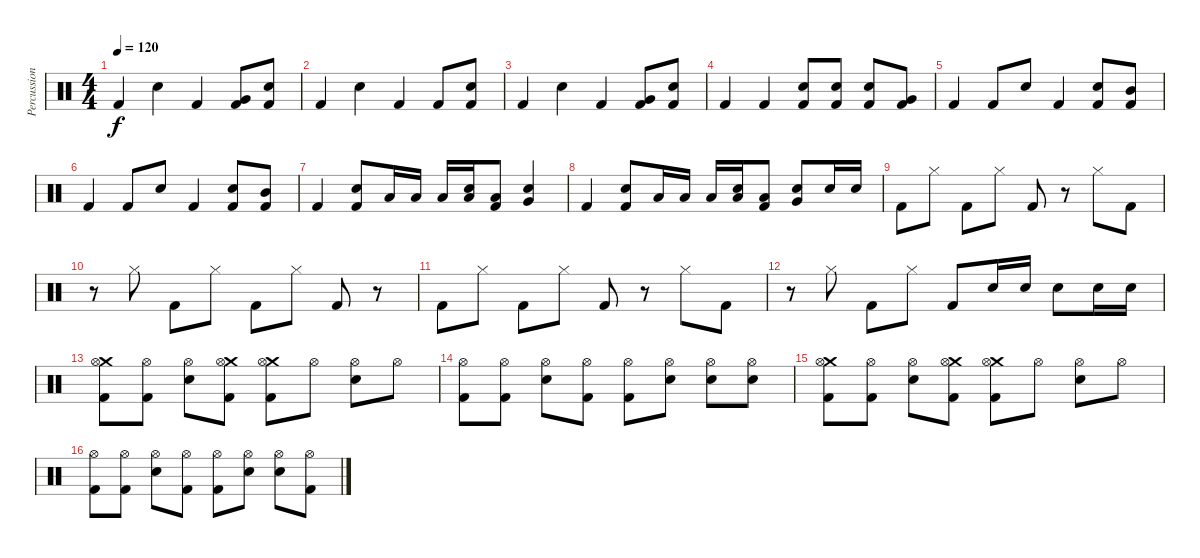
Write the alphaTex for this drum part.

\track ("Percussion" "Percussion") {instrument percussion}
\staff {score}
\articulation defaults
\ts (4 4)
\tempo 120
\clef neutral
\ks c "Kick (hit) 2".4{dy f} "Electric Snare (hit)".4 "Kick (hit) 2".4
("Very Low Tom (hit)" "Kick (hit) 2").8 ("Electric Snare (hit)" "Kick (hit) 2").8 |
"Kick (hit) 2".4 "Electric Snare (hit)".4 "Kick (hit) 2".4 "Kick (hit) 2".8 ("Electric Snare (hit)" "Kick (hit) 2").8 |
"Kick (hit) 2".4 "Electric Snare (hit)".4 "Kick (hit) 2".4 ("Very Low Tom (hit)" "Kick (hit) 2").8 ("Electric Snare (hit)" "Kick (hit) 2").8 |
"Kick (hit) 2".4 "Kick (hit) 2".4 ("Electric Snare (hit)" "Kick (hit) 2").8 ("Electric Snare (hit)" "Kick (hit) 2").8 ("Electric Snare (hit)" "Kick (hit) 2").8 ("Very Low Tom (hit)" "Kick (hit) 2").8 |
"Kick (hit) 2".4 "Kick (hit) 2".8 "Electric Snare (hit)".8 "Kick (hit) 2".4 ("Electric Snare (hit)" "Kick (hit) 2").8 ("Mid Tom (hit)" "Kick (hit) 2").8 |
"Kick (hit) 2".4 "Kick (hit) 2".8 "Electric Snare (hit)".8 "Kick (hit) 2".4 ("Electric Snare (hit)" "Kick (hit) 2").8 ("Mid Tom (hit)" "Kick (hit) 2").8 |
"Kick (hit) 2".4 ("Electric Snare (hit)" "Kick (hit) 2").8 "Low Tom (hit)".16 "Low Tom (hit)".16 "Low Tom (hit)".16 ("Low Tom (hit)" "Electric Snare (hit)").16 ("Low Tom (hit)" "Kick (hit) 2").8 ("Very Low Tom (hit)" "Electric Snare (hit)").4 |
"Kick (hit) 2".4 ("Electric Snare (hit)" "Kick (hit) 2").8 "Low Tom (hit)".16 "Low Tom (hit)".16 "Low Tom (hit)".16 ("Low Tom (hit)" "Electric Snare (hit)").16 ("Low Tom (hit)" "Kick (hit) 2").8 ("Very Low Tom (hit)" "Electric Snare (hit)").8 "Electric Snare (hit)".16 "Electric Snare (hit)".16 |
"Kick (hit) 2".8 "Hi-Hat (closed)".8 "Kick (hit) 2".8 "Hi-Hat (closed)".8 "Kick (hit) 2".8 r.8 "Hi-Hat (closed)".8 "Kick (hit) 2".8 |
r.8 "Hi-Hat (closed)".8 "Kick (hit) 2".8 "Hi-Hat (closed)".8 "Kick (hit) 2".8 "Hi-Hat (closed)".8 "Kick (hit) 2".8 r.8 |
"Kick (hit) 2".8 "Hi-Hat (closed)".8 "Kick (hit) 2".8 "Hi-Hat (closed)".8 "Kick (hit) 2".8 r.8 "Hi-Hat (closed)".8 "Kick (hit) 2".8 |
r.8 "Hi-Hat (closed)".8 "Kick (hit) 2".8 "Hi-Hat (closed)".8 "Kick (hit) 2".8 "Electric Snare (hit)".16 "Electric Snare (hit)".16 "Electric Snare (hit)".8 "Electric Snare (hit)".16 "Electric Snare (hit)".16 |
("Crash medium (hit)" "Hi-Hat (open)" "Kick (hit) 2").8 ("Hi-Hat (open)" "Kick (hit) 2").8 ("Hi-Hat (open)" "Electric Snare (hit)").8 ("Crash medium (hit)" "Hi-Hat (open)" "Kick (hit) 2").8 ("Crash medium (hit)" "Hi-Hat (open)" "Kick (hit) 2").8 "Hi-Hat (open)".8 ("Hi-Hat (open)" "Electric Snare (hit)").8 "Hi-Hat (open)".8 |
("Hi-Hat (open)" "Kick (hit) 2").8 ("Hi-Hat (open)" "Kick (hit) 2").8 ("Hi-Hat (open)" "Electric Snare (hit)").8 ("Hi-Hat (open)" "Kick (hit) 2").8 ("Hi-Hat (open)" "Kick (hit) 2").8 ("Hi-Hat (open)" "Electric Snare (hit)").8 ("Hi-Hat (open)" "Electric Snare (hit)").8 ("Hi-Hat (open)" "Electric Snare (hit)").8 |
("Crash medium (hit)" "Hi-Hat (open)" "Kick (hit) 2").8 ("Hi-Hat (open)" "Kick (hit) 2").8 ("Hi-Hat (open)" "Electric Snare (hit)").8 ("Crash medium (hit)" "Hi-Hat (open)" "Kick (hit) 2").8 ("Crash medium (hit)" "Hi-Hat (open)" "Kick (hit) 2").8 "Hi-Hat (open)".8 ("Hi-Hat (open)" "Electric Snare (hit)").8 "Hi-Hat (open)".8 |
("Hi-Hat (open)" "Kick (hit) 2").8 ("Hi-Hat (open)" "Kick (hit) 2").8 ("Hi-Hat (open)" "Electric Snare (hit)").8 ("Hi-Hat (open)" "Kick (hit) 2").8 ("Hi-Hat (open)" "Kick (hit) 2").8 ("Hi-Hat (open)" "Electric Snare (hit)").8 ("Hi-Hat (open)" "Electric Snare (hit)").8 ("Hi-Hat (open)" "Kick (hit) 2").8
